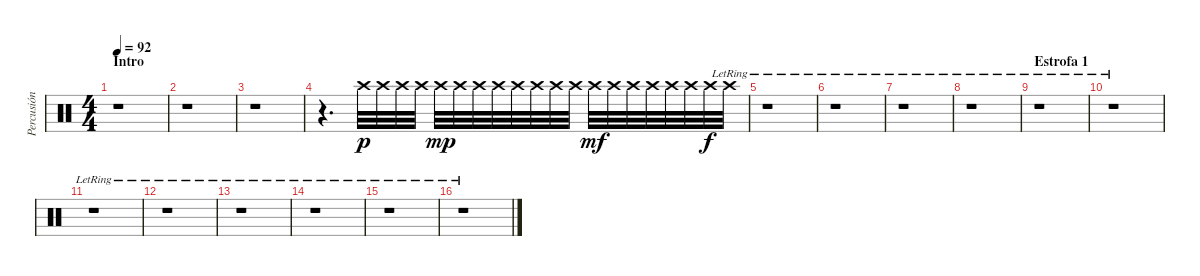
\track ("Percusión" "Percusión") {instrument percussion}
\staff {score}
\articulation defaults
\ts (4 4)
\section ("" "Intro")
\tempo 92
\clef neutral
\ks c
r.1{dy p} |
r.1 |
r.1 |
r.4{d volume 9} "Crash high (hit)".32 "Crash high (hit)".32 "Crash high (hit)".32 "Crash high (hit)".32 "Crash high (hit)".32{dy mp} "Crash high (hit)".32 "Crash high (hit)".32 "Crash high (hit)".32 "Crash high (hit)".32 "Crash high (hit)".32 "Crash high (hit)".32 "Crash high (hit)".32 "Crash high (hit)".32{dy mf} "Crash high (hit)".32 "Crash high (hit)".32 "Crash high (hit)".32 "Crash high (hit)".32 "Crash high (hit)".32 "Crash high (hit)".32{dy f} "Crash high (hit)"{lr}.32 |
r.1{volume 12} |
r.1 |
r.1 |
r.1 |
\section ("" "Estrofa 1")
r.1 |
r.1 |
r.1 |
r.1 |
r.1 |
r.1 |
r.1 |
r.1
